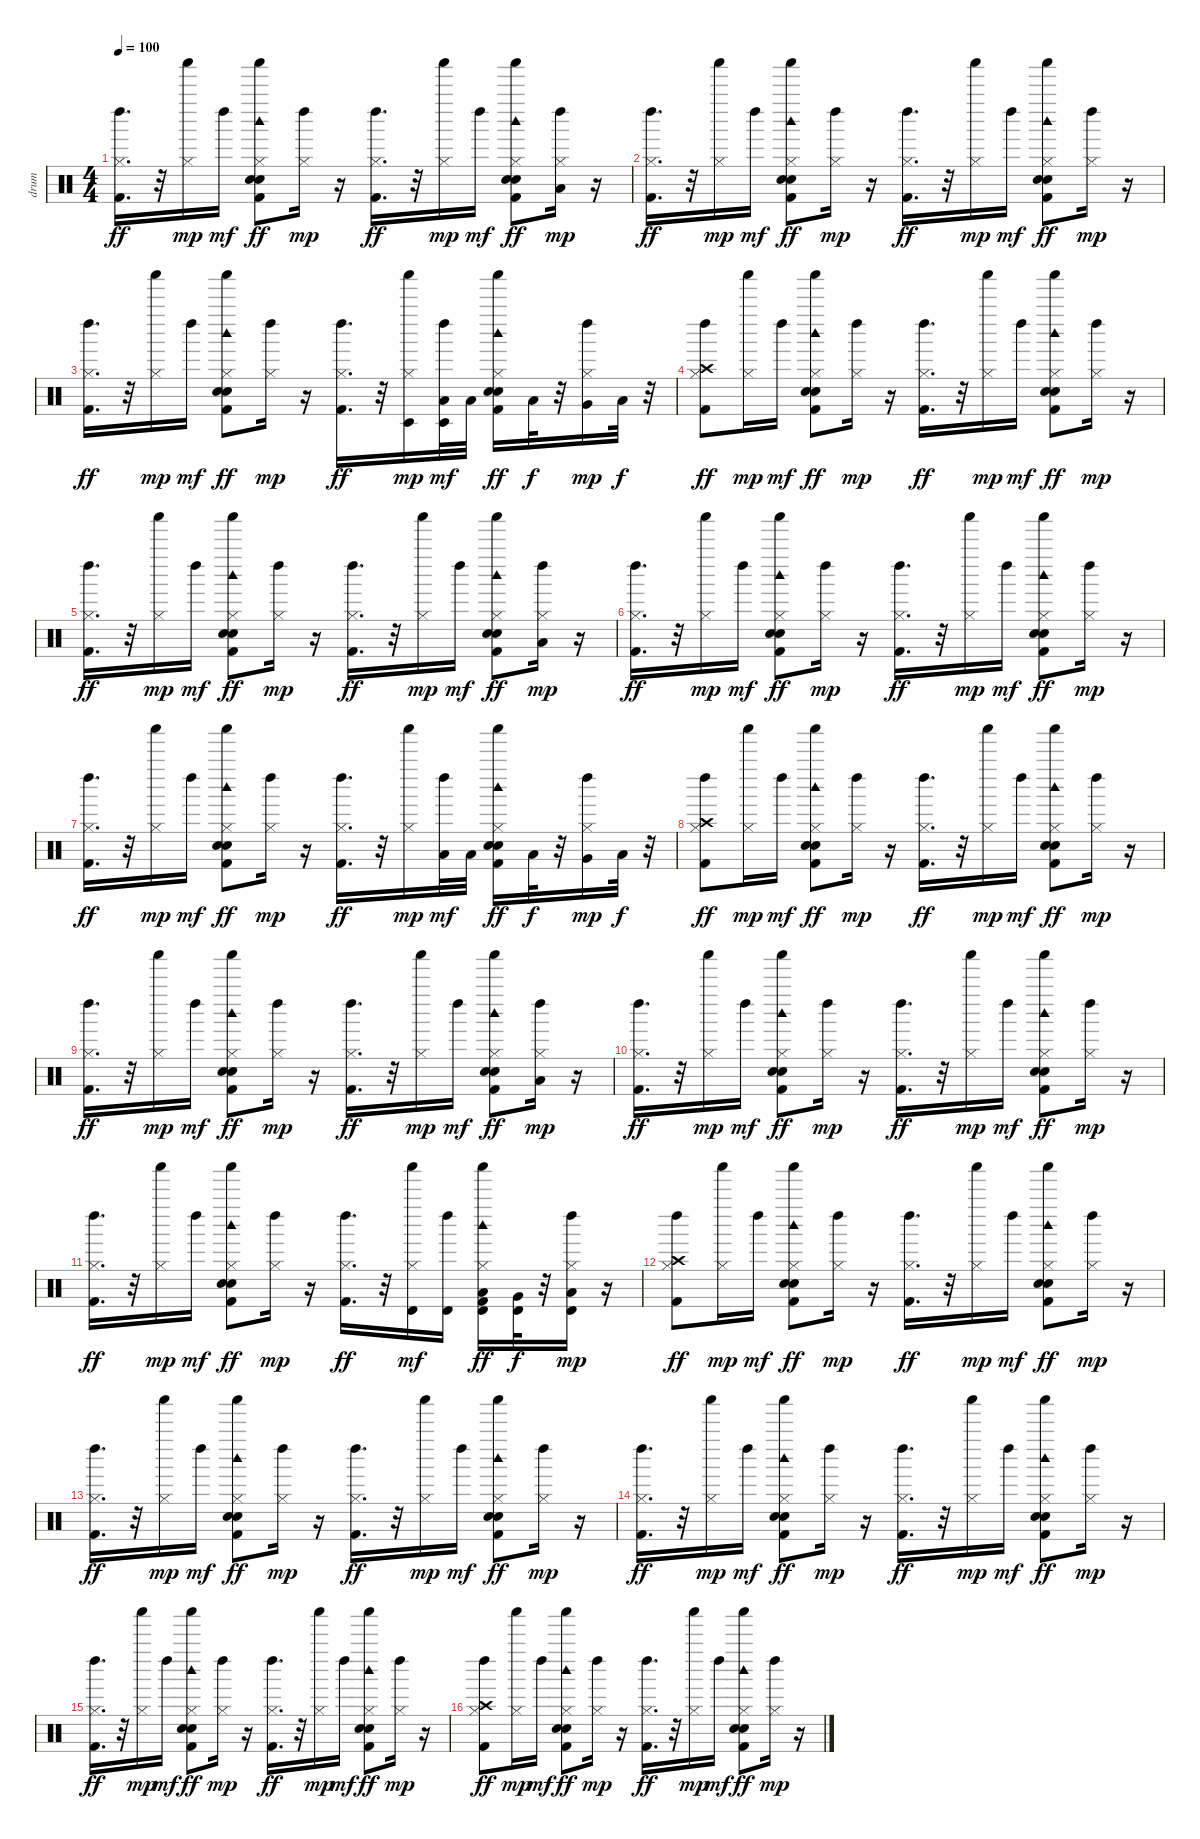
\track ("drum" "drum") {instrument percussion}
\staff {score}
\articulation defaults
\ts (4 4)
\tempo 100
\clef neutral
\ks c
("Left Maraca (hit)" "Hi-Hat (closed)" "Kick (hit) 2").16{d dy ff} r.32 ("Shaker (hit)" "Hi-Hat (closed)").16{dy mp} "Left Maraca (hit)".16{dy mf} ("Shaker (hit)" "Woodblock high (hit)" "Hi-Hat (closed)" "Hand Clap (hit)" "Snare (hit) 2" "Kick (hit) 2").8{dy ff} ("Left Maraca (hit)" "Hi-Hat (closed)").16{dy mp} r.16 ("Left Maraca (hit)" "Hi-Hat (closed)" "Kick (hit) 2").16{d dy ff} r.32 ("Shaker (hit)" "Hi-Hat (closed)").16{dy mp} "Left Maraca (hit)".16{dy mf} ("Shaker (hit)" "Woodblock high (hit)" "Hi-Hat (closed)" "Hand Clap (hit)" "Snare (hit) 2" "Kick (hit) 2").8{dy ff} ("Left Maraca (hit)" "Hi-Hat (closed)" "Low Floor Tom (hit)").16{dy mp} r.16 |
("Left Maraca (hit)" "Hi-Hat (closed)" "Kick (hit) 2").16{d dy ff} r.32 ("Shaker (hit)" "Hi-Hat (closed)").16{dy mp} "Left Maraca (hit)".16{dy mf} ("Shaker (hit)" "Woodblock high (hit)" "Hi-Hat (closed)" "Hand Clap (hit)" "Snare (hit) 2" "Kick (hit) 2").8{dy ff} ("Left Maraca (hit)" "Hi-Hat (closed)").16{dy mp} r.16 ("Left Maraca (hit)" "Hi-Hat (closed)" "Kick (hit) 2").16{d dy ff} r.32 ("Shaker (hit)" "Hi-Hat (closed)").16{dy mp} "Left Maraca (hit)".16{dy mf} ("Shaker (hit)" "Woodblock high (hit)" "Hi-Hat (closed)" "Hand Clap (hit)" "Snare (hit) 2" "Kick (hit) 2").8{dy ff} ("Left Maraca (hit)" "Hi-Hat (closed)").16{dy mp} r.16 |
("Left Maraca (hit)" "Hi-Hat (closed)" "Kick (hit) 2").16{d dy ff} r.32 ("Shaker (hit)" "Hi-Hat (closed)").16{dy mp} "Left Maraca (hit)".16{dy mf} ("Shaker (hit)" "Woodblock high (hit)" "Hi-Hat (closed)" "Hand Clap (hit)" "Snare (hit) 2" "Kick (hit) 2").8{dy ff} ("Left Maraca (hit)" "Hi-Hat (closed)").16{dy mp} r.16 ("Left Maraca (hit)" "Hi-Hat (closed)" "Kick (hit) 2").16{d dy ff} r.32 ("Shaker (hit)" "Hi-Hat (closed)" "Timbale low (hit)").16{dy mp} ("Left Maraca (hit)" "Low Tom (hit)" "Timbale low (hit)").32{dy mf} "Low Tom (hit)".32 ("Shaker (hit)" "Woodblock high (hit)" "Hi-Hat (closed)" "Hand Clap (hit)" "Snare (hit) 2" "Kick (hit) 2").16{dy ff} "Low Tom (hit)".32{dy f} r.32 ("Left Maraca (hit)" "Hi-Hat (closed)" "Very Low Tom (hit)").16{dy mp} "Low Floor Tom (hit)".32{dy f} r.32 |
("Crash high (hit)" "Left Maraca (hit)" "Hi-Hat (closed)" "Kick (hit) 2").8{dy ff} ("Shaker (hit)" "Hi-Hat (closed)").16{dy mp} "Left Maraca (hit)".16{dy mf} ("Shaker (hit)" "Woodblock high (hit)" "Hi-Hat (closed)" "Hand Clap (hit)" "Snare (hit) 2" "Kick (hit) 2").8{dy ff} ("Left Maraca (hit)" "Hi-Hat (closed)").16{dy mp} r.16 ("Left Maraca (hit)" "Hi-Hat (closed)" "Kick (hit) 2").16{d dy ff} r.32 ("Shaker (hit)" "Hi-Hat (closed)").16{dy mp} "Left Maraca (hit)".16{dy mf} ("Shaker (hit)" "Woodblock high (hit)" "Hi-Hat (closed)" "Hand Clap (hit)" "Snare (hit) 2" "Kick (hit) 2").8{dy ff} ("Left Maraca (hit)" "Hi-Hat (closed)").16{dy mp} r.16 |
("Left Maraca (hit)" "Hi-Hat (closed)" "Kick (hit) 2").16{d dy ff} r.32 ("Shaker (hit)" "Hi-Hat (closed)").16{dy mp} "Left Maraca (hit)".16{dy mf} ("Shaker (hit)" "Woodblock high (hit)" "Hi-Hat (closed)" "Hand Clap (hit)" "Snare (hit) 2" "Kick (hit) 2").8{dy ff} ("Left Maraca (hit)" "Hi-Hat (closed)").16{dy mp} r.16 ("Left Maraca (hit)" "Hi-Hat (closed)" "Kick (hit) 2").16{d dy ff} r.32 ("Shaker (hit)" "Hi-Hat (closed)").16{dy mp} "Left Maraca (hit)".16{dy mf} ("Shaker (hit)" "Woodblock high (hit)" "Hi-Hat (closed)" "Hand Clap (hit)" "Snare (hit) 2" "Kick (hit) 2").8{dy ff} ("Left Maraca (hit)" "Hi-Hat (closed)" "Low Floor Tom (hit)").16{dy mp} r.16 |
("Left Maraca (hit)" "Hi-Hat (closed)" "Kick (hit) 2").16{d dy ff} r.32 ("Shaker (hit)" "Hi-Hat (closed)").16{dy mp} "Left Maraca (hit)".16{dy mf} ("Shaker (hit)" "Woodblock high (hit)" "Hi-Hat (closed)" "Hand Clap (hit)" "Snare (hit) 2" "Kick (hit) 2").8{dy ff} ("Left Maraca (hit)" "Hi-Hat (closed)").16{dy mp} r.16 ("Left Maraca (hit)" "Hi-Hat (closed)" "Kick (hit) 2").16{d dy ff} r.32 ("Shaker (hit)" "Hi-Hat (closed)").16{dy mp} "Left Maraca (hit)".16{dy mf} ("Shaker (hit)" "Woodblock high (hit)" "Hi-Hat (closed)" "Hand Clap (hit)" "Snare (hit) 2" "Kick (hit) 2").8{dy ff} ("Left Maraca (hit)" "Hi-Hat (closed)").16{dy mp} r.16 |
("Left Maraca (hit)" "Hi-Hat (closed)" "Kick (hit) 2").16{d dy ff} r.32 ("Shaker (hit)" "Hi-Hat (closed)").16{dy mp} "Left Maraca (hit)".16{dy mf} ("Shaker (hit)" "Woodblock high (hit)" "Hi-Hat (closed)" "Hand Clap (hit)" "Snare (hit) 2" "Kick (hit) 2").8{dy ff} ("Left Maraca (hit)" "Hi-Hat (closed)").16{dy mp} r.16 ("Left Maraca (hit)" "Hi-Hat (closed)" "Kick (hit) 2").16{d dy ff} r.32 ("Shaker (hit)" "Hi-Hat (closed)").16{dy mp} ("Left Maraca (hit)" "Low Tom (hit)").32{dy mf} "Low Tom (hit)".32 ("Shaker (hit)" "Woodblock high (hit)" "Hi-Hat (closed)" "Hand Clap (hit)" "Snare (hit) 2" "Kick (hit) 2").16{dy ff} "Low Tom (hit)".32{dy f} r.32 ("Left Maraca (hit)" "Hi-Hat (closed)" "Very Low Tom (hit)").16{dy mp} "Low Floor Tom (hit)".32{dy f} r.32 |
("Crash high (hit)" "Left Maraca (hit)" "Hi-Hat (closed)" "Kick (hit) 2").8{dy ff} ("Shaker (hit)" "Hi-Hat (closed)").16{dy mp} "Left Maraca (hit)".16{dy mf} ("Shaker (hit)" "Woodblock high (hit)" "Hi-Hat (closed)" "Hand Clap (hit)" "Snare (hit) 2" "Kick (hit) 2").8{dy ff} ("Left Maraca (hit)" "Hi-Hat (closed)").16{dy mp} r.16 ("Left Maraca (hit)" "Hi-Hat (closed)" "Kick (hit) 2").16{d dy ff} r.32 ("Shaker (hit)" "Hi-Hat (closed)").16{dy mp} "Left Maraca (hit)".16{dy mf} ("Shaker (hit)" "Woodblock high (hit)" "Hi-Hat (closed)" "Hand Clap (hit)" "Snare (hit) 2" "Kick (hit) 2").8{dy ff} ("Left Maraca (hit)" "Hi-Hat (closed)").16{dy mp} r.16 |
("Left Maraca (hit)" "Hi-Hat (closed)" "Kick (hit) 2").16{d dy ff} r.32 ("Shaker (hit)" "Hi-Hat (closed)").16{dy mp} "Left Maraca (hit)".16{dy mf} ("Shaker (hit)" "Woodblock high (hit)" "Hi-Hat (closed)" "Hand Clap (hit)" "Snare (hit) 2" "Kick (hit) 2").8{dy ff} ("Left Maraca (hit)" "Hi-Hat (closed)").16{dy mp} r.16 ("Left Maraca (hit)" "Hi-Hat (closed)" "Kick (hit) 2").16{d dy ff} r.32 ("Shaker (hit)" "Hi-Hat (closed)").16{dy mp} "Left Maraca (hit)".16{dy mf} ("Shaker (hit)" "Woodblock high (hit)" "Hi-Hat (closed)" "Hand Clap (hit)" "Snare (hit) 2" "Kick (hit) 2").8{dy ff} ("Left Maraca (hit)" "Hi-Hat (closed)" "Low Floor Tom (hit)").16{dy mp} r.16 |
("Left Maraca (hit)" "Hi-Hat (closed)" "Kick (hit) 2").16{d dy ff} r.32 ("Shaker (hit)" "Hi-Hat (closed)").16{dy mp} "Left Maraca (hit)".16{dy mf} ("Shaker (hit)" "Woodblock high (hit)" "Hi-Hat (closed)" "Hand Clap (hit)" "Snare (hit) 2" "Kick (hit) 2").8{dy ff} ("Left Maraca (hit)" "Hi-Hat (closed)").16{dy mp} r.16 ("Left Maraca (hit)" "Hi-Hat (closed)" "Kick (hit) 2").16{d dy ff} r.32 ("Shaker (hit)" "Hi-Hat (closed)").16{dy mp} "Left Maraca (hit)".16{dy mf} ("Shaker (hit)" "Woodblock high (hit)" "Hi-Hat (closed)" "Hand Clap (hit)" "Snare (hit) 2" "Kick (hit) 2").8{dy ff} ("Left Maraca (hit)" "Hi-Hat (closed)").16{dy mp} r.16 |
("Left Maraca (hit)" "Hi-Hat (closed)" "Kick (hit) 2").16{d dy ff} r.32 ("Shaker (hit)" "Hi-Hat (closed)").16{dy mp} "Left Maraca (hit)".16{dy mf} ("Shaker (hit)" "Woodblock high (hit)" "Hi-Hat (closed)" "Hand Clap (hit)" "Snare (hit) 2" "Kick (hit) 2").8{dy ff} ("Left Maraca (hit)" "Hi-Hat (closed)").16{dy mp} r.16 ("Left Maraca (hit)" "Hi-Hat (closed)" "Kick (hit) 2").16{d dy ff} r.32 ("Shaker (hit)" "Hi-Hat (closed)" "Timbale high (hit)").16{dy mf} ("Left Maraca (hit)" "Timbale high (hit)").16 ("Shaker (hit)" "Woodblock high (hit)" "Hi-Hat (closed)" "Kick (hit) 2" "Low Tom (hit)" "Timbale high (hit)").16{dy ff} ("Very Low Tom (hit)" "Timbale high (hit)").32{dy f} r.32 ("Left Maraca (hit)" "Hi-Hat (closed)" "Low Floor Tom (hit)" "Timbale high (hit)").16{dy mp} r.16 |
("Crash high (hit)" "Left Maraca (hit)" "Hi-Hat (closed)" "Kick (hit) 2").8{dy ff} ("Shaker (hit)" "Hi-Hat (closed)").16{dy mp} "Left Maraca (hit)".16{dy mf} ("Shaker (hit)" "Woodblock high (hit)" "Hi-Hat (closed)" "Hand Clap (hit)" "Snare (hit) 2" "Kick (hit) 2").8{dy ff} ("Left Maraca (hit)" "Hi-Hat (closed)").16{dy mp} r.16 ("Left Maraca (hit)" "Hi-Hat (closed)" "Kick (hit) 2").16{d dy ff} r.32 ("Shaker (hit)" "Hi-Hat (closed)").16{dy mp} "Left Maraca (hit)".16{dy mf} ("Shaker (hit)" "Woodblock high (hit)" "Hi-Hat (closed)" "Hand Clap (hit)" "Snare (hit) 2" "Kick (hit) 2").8{dy ff} ("Left Maraca (hit)" "Hi-Hat (closed)").16{dy mp} r.16 |
("Left Maraca (hit)" "Hi-Hat (closed)" "Kick (hit) 2").16{d dy ff} r.32 ("Shaker (hit)" "Hi-Hat (closed)").16{dy mp} "Left Maraca (hit)".16{dy mf} ("Shaker (hit)" "Woodblock high (hit)" "Hi-Hat (closed)" "Hand Clap (hit)" "Snare (hit) 2" "Kick (hit) 2").8{dy ff} ("Left Maraca (hit)" "Hi-Hat (closed)").16{dy mp} r.16 ("Left Maraca (hit)" "Hi-Hat (closed)" "Kick (hit) 2").16{d dy ff} r.32 ("Shaker (hit)" "Hi-Hat (closed)").16{dy mp} "Left Maraca (hit)".16{dy mf} ("Shaker (hit)" "Woodblock high (hit)" "Hi-Hat (closed)" "Hand Clap (hit)" "Snare (hit) 2" "Kick (hit) 2").8{dy ff} ("Left Maraca (hit)" "Hi-Hat (closed)").16{dy mp} r.16 |
("Left Maraca (hit)" "Hi-Hat (closed)" "Kick (hit) 2").16{d dy ff} r.32 ("Shaker (hit)" "Hi-Hat (closed)").16{dy mp} "Left Maraca (hit)".16{dy mf} ("Shaker (hit)" "Woodblock high (hit)" "Hi-Hat (closed)" "Hand Clap (hit)" "Snare (hit) 2" "Kick (hit) 2").8{dy ff} ("Left Maraca (hit)" "Hi-Hat (closed)").16{dy mp} r.16 ("Left Maraca (hit)" "Hi-Hat (closed)" "Kick (hit) 2").16{d dy ff} r.32 ("Shaker (hit)" "Hi-Hat (closed)").16{dy mp} "Left Maraca (hit)".16{dy mf} ("Shaker (hit)" "Woodblock high (hit)" "Hi-Hat (closed)" "Hand Clap (hit)" "Snare (hit) 2" "Kick (hit) 2").8{dy ff} ("Left Maraca (hit)" "Hi-Hat (closed)").16{dy mp} r.16 |
("Left Maraca (hit)" "Hi-Hat (closed)" "Kick (hit) 2").16{d dy ff} r.32 ("Shaker (hit)" "Hi-Hat (closed)").16{dy mp} "Left Maraca (hit)".16{dy mf} ("Shaker (hit)" "Woodblock high (hit)" "Hi-Hat (closed)" "Hand Clap (hit)" "Snare (hit) 2" "Kick (hit) 2").8{dy ff} ("Left Maraca (hit)" "Hi-Hat (closed)").16{dy mp} r.16 ("Left Maraca (hit)" "Hi-Hat (closed)" "Kick (hit) 2").16{d dy ff} r.32 ("Shaker (hit)" "Hi-Hat (closed)").16{dy mp} "Left Maraca (hit)".16{dy mf} ("Shaker (hit)" "Woodblock high (hit)" "Hi-Hat (closed)" "Hand Clap (hit)" "Snare (hit) 2" "Kick (hit) 2").8{dy ff} ("Left Maraca (hit)" "Hi-Hat (closed)").16{dy mp} r.16 |
("Crash high (hit)" "Left Maraca (hit)" "Hi-Hat (closed)" "Kick (hit) 2").8{dy ff} ("Shaker (hit)" "Hi-Hat (closed)").16{dy mp} "Left Maraca (hit)".16{dy mf} ("Shaker (hit)" "Woodblock high (hit)" "Hi-Hat (closed)" "Hand Clap (hit)" "Snare (hit) 2" "Kick (hit) 2").8{dy ff} ("Left Maraca (hit)" "Hi-Hat (closed)").16{dy mp} r.16 ("Left Maraca (hit)" "Hi-Hat (closed)" "Kick (hit) 2").16{d dy ff} r.32 ("Shaker (hit)" "Hi-Hat (closed)").16{dy mp} "Left Maraca (hit)".16{dy mf} ("Shaker (hit)" "Woodblock high (hit)" "Hi-Hat (closed)" "Hand Clap (hit)" "Snare (hit) 2" "Kick (hit) 2").8{dy ff} ("Left Maraca (hit)" "Hi-Hat (closed)").16{dy mp} r.16
